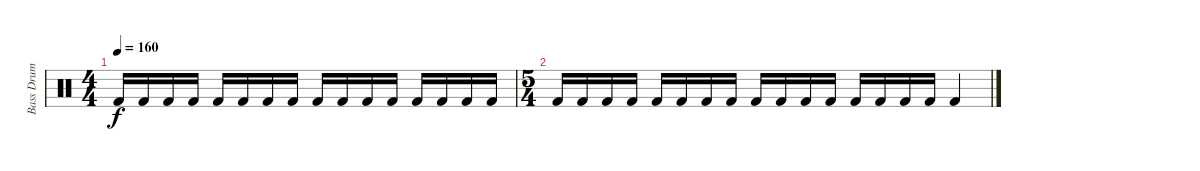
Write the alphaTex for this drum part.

\track ("Bass Drum" "Bass Drum") {instrument percussion}
\staff {score}
\articulation defaults
\ts (4 4)
\tempo 160
\clef neutral
\ks c "Kick (hit) 2".16{dy f} "Kick (hit) 2".16 "Kick (hit) 2".16 "Kick (hit) 2".16 "Kick (hit) 2".16 "Kick (hit) 2".16 "Kick (hit) 2".16 "Kick (hit) 2".16 "Kick (hit) 2".16 "Kick (hit) 2".16 "Kick (hit) 2".16 "Kick (hit) 2".16 "Kick (hit) 2".16 "Kick (hit) 2".16 "Kick (hit) 2".16 "Kick (hit) 2".16
|
\ts (5 4)
"Kick (hit) 2".16 "Kick (hit) 2".16 "Kick (hit) 2".16 "Kick (hit) 2".16 "Kick (hit) 2".16 "Kick (hit) 2".16 "Kick (hit) 2".16 "Kick (hit) 2".16 "Kick (hit) 2".16 "Kick (hit) 2".16 "Kick (hit) 2".16 "Kick (hit) 2".16 "Kick (hit) 2".16 "Kick (hit) 2".16 "Kick (hit) 2".16 "Kick (hit) 2".16 "Kick (hit) 2".4
